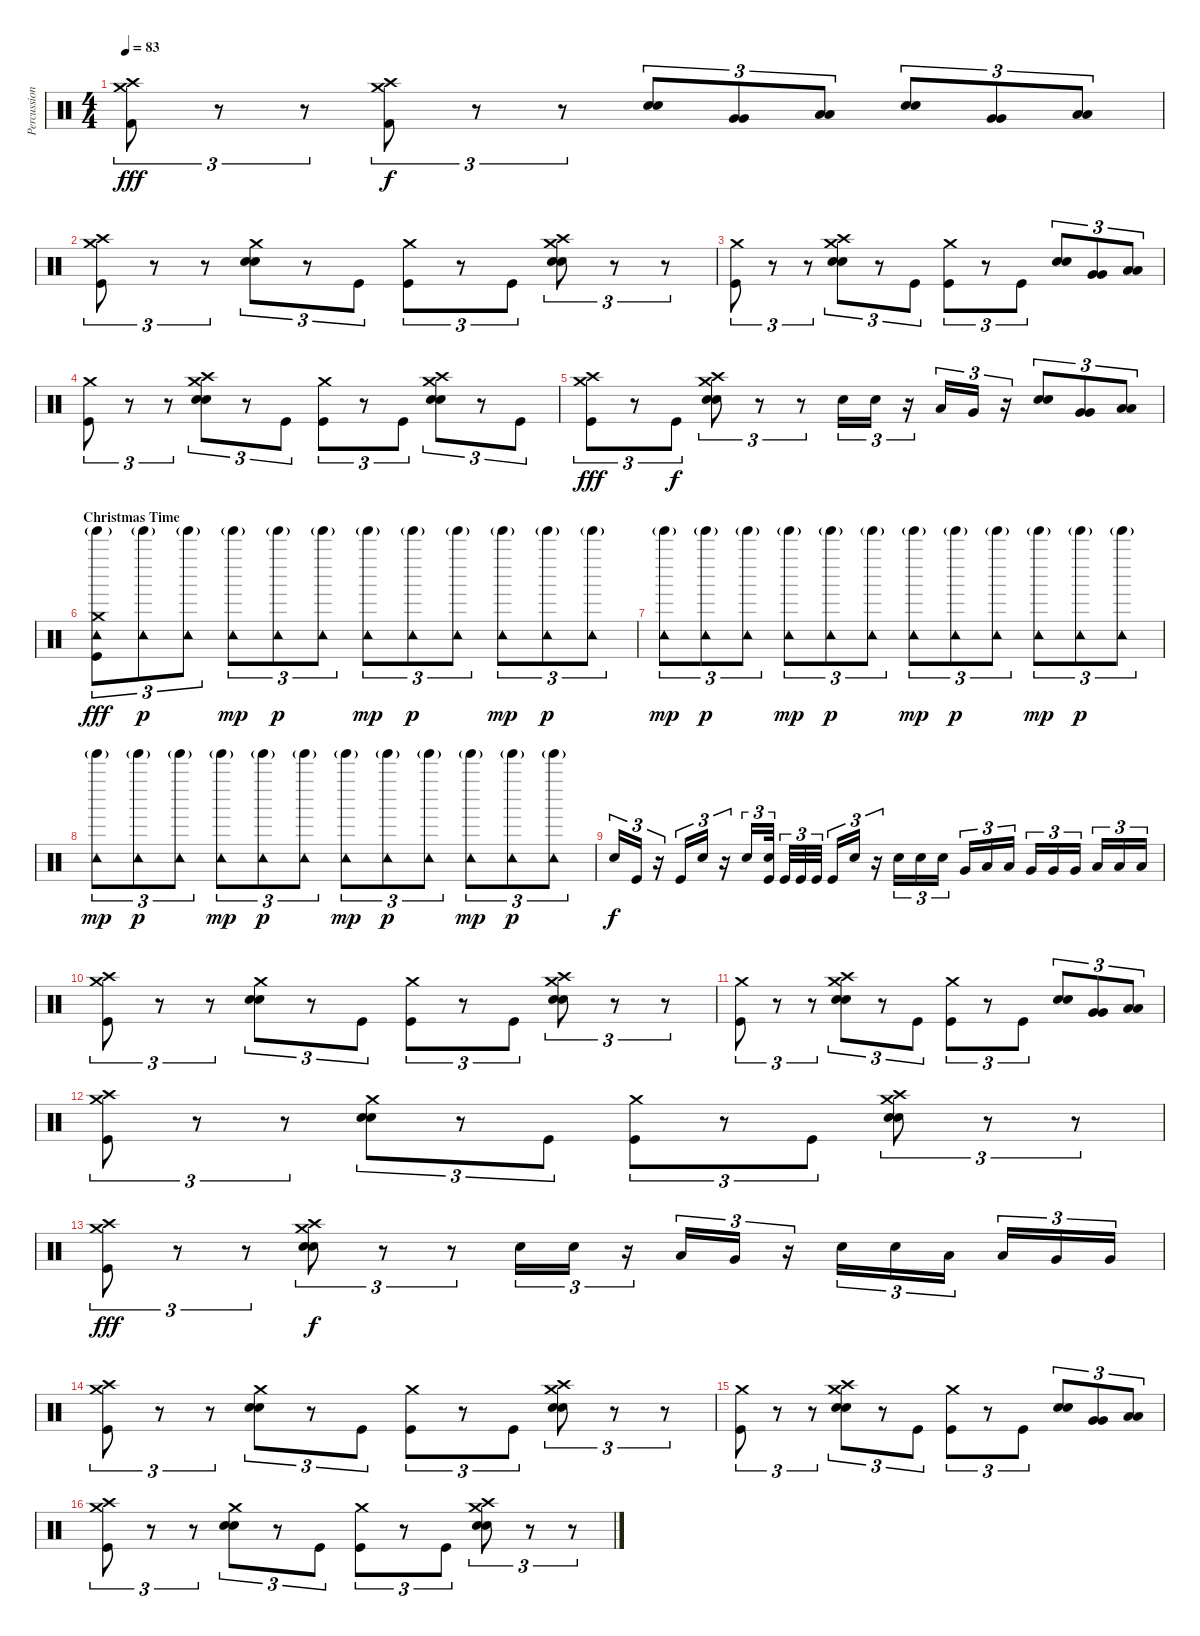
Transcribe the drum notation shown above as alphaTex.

\track ("Percussion" "Percussion") {instrument percussion}
\staff {score}
\articulation defaults
\ts (4 4)
\tempo 83
\clef neutral
\ks c
("Crash high (hit)" "Crash medium (hit)" "Kick (hit) 2").8{tu (3 2) dy fff} r.8{tu (3 2)} r.8{tu (3 2)} ("Crash high (hit)" "Crash medium (hit)" "Kick (hit) 2").8{tu (3 2) dy f} r.8{tu (3 2)} r.8{tu (3 2)} ("Snare (hit) 2" "Snare (hit) 2").8{tu (3 2)} ("Very Low Tom (hit)" "Very Low Tom (hit)").8{tu (3 2)} ("Low Floor Tom (hit)" "Low Floor Tom (hit)").8{tu (3 2)} ("Snare (hit) 2" "Snare (hit) 2").8{tu (3 2)} ("Very Low Tom (hit)" "Very Low Tom (hit)").8{tu (3 2)} ("Low Floor Tom (hit)" "Low Floor Tom (hit)").8{tu (3 2)} |
("Crash high (hit)" "Crash medium (hit)" "Kick (hit)").8{tu (3 2)} r.8{tu (3 2)} r.8{tu (3 2)} ("Crash medium (hit)" "Snare (hit) 2" "Snare (hit) 2").8{tu (3 2)} r.8{tu (3 2)} "Kick (hit)".8{tu (3 2)} ("Crash medium (hit)" "Kick (hit)").8{tu (3 2)} r.8{tu (3 2)} "Kick (hit)".8{tu (3 2)} ("Crash high (hit)" "Crash medium (hit)" "Snare (hit) 2" "Snare (hit) 2").8{tu (3 2)} r.8{tu (3 2)} r.8{tu (3 2)} |
("Crash medium (hit)" "Kick (hit)").8{tu (3 2)} r.8{tu (3 2)} r.8{tu (3 2)} ("Crash high (hit)" "Crash medium (hit)" "Snare (hit) 2" "Snare (hit) 2").8{tu (3 2)} r.8{tu (3 2)} "Kick (hit)".8{tu (3 2)} ("Crash medium (hit)" "Kick (hit)").8{tu (3 2)} r.8{tu (3 2)} "Kick (hit)".8{tu (3 2)} ("Snare (hit) 2" "Snare (hit) 2").8{tu (3 2)} ("Very Low Tom (hit)" "Very Low Tom (hit)").8{tu (3 2)} ("Low Floor Tom (hit)" "Low Floor Tom (hit)").8{tu (3 2)} |
("Crash medium (hit)" "Kick (hit)").8{tu (3 2)} r.8{tu (3 2)} r.8{tu (3 2)} ("Crash high (hit)" "Crash medium (hit)" "Snare (hit) 2" "Snare (hit) 2").8{tu (3 2)} r.8{tu (3 2)} "Kick (hit)".8{tu (3 2)} ("Crash medium (hit)" "Kick (hit)").8{tu (3 2)} r.8{tu (3 2)} "Kick (hit)".8{tu (3 2)} ("Crash high (hit)" "Crash medium (hit)" "Snare (hit) 2" "Snare (hit) 2").8{tu (3 2)} r.8{tu (3 2)} "Kick (hit)".8{tu (3 2)} |
("Crash high (hit)" "Crash medium (hit)" "Kick (hit)").8{tu (3 2) dy fff} r.8{tu (3 2)} "Kick (hit)".8{tu (3 2) dy f} ("Crash high (hit)" "Crash medium (hit)" "Snare (hit) 2" "Snare (hit) 2").8{tu (3 2)} r.8{tu (3 2)} r.8{tu (3 2)} "Snare (hit) 2".16{tu (3 2)} "Snare (hit) 2".16{tu (3 2)} r.16{tu (3 2)} "Low Tom (hit)".16{tu (3 2)} "Very Low Tom (hit)".16{tu (3 2)} r.16{tu (3 2)} ("Snare (hit) 2" "Snare (hit) 2").8{tu (3 2)} ("Very Low Tom (hit)" "Very Low Tom (hit)").8{tu (3 2)} ("Low Floor Tom (hit)" "Low Floor Tom (hit)").8{tu (3 2)} |
\section ("" "Christmas Time")
("Tinkle Bell (hit)"{g} "Tambourine (hit)" "Crash medium (hit)" "Kick (hit)").8{tu (3 2) dy fff} ("Tinkle Bell (hit)"{g} "Tambourine (hit)").8{tu (3 2) dy p} ("Tinkle Bell (hit)"{g} "Tambourine (hit)").8{tu (3 2)} ("Tinkle Bell (hit)"{g} "Tambourine (hit)").8{tu (3 2) dy mp} ("Tinkle Bell (hit)"{g} "Tambourine (hit)").8{tu (3 2) dy p} ("Tinkle Bell (hit)"{g} "Tambourine (hit)").8{tu (3 2)} ("Tinkle Bell (hit)"{g} "Tambourine (hit)").8{tu (3 2) dy mp} ("Tinkle Bell (hit)"{g} "Tambourine (hit)").8{tu (3 2) dy p} ("Tinkle Bell (hit)"{g} "Tambourine (hit)").8{tu (3 2)} ("Tinkle Bell (hit)"{g} "Tambourine (hit)").8{tu (3 2) dy mp} ("Tinkle Bell (hit)"{g} "Tambourine (hit)").8{tu (3 2) dy p} ("Tinkle Bell (hit)"{g} "Tambourine (hit)").8{tu (3 2)} |
("Tinkle Bell (hit)"{g} "Tambourine (hit)").8{tu (3 2) dy mp} ("Tinkle Bell (hit)"{g} "Tambourine (hit)").8{tu (3 2) dy p} ("Tinkle Bell (hit)"{g} "Tambourine (hit)").8{tu (3 2)} ("Tinkle Bell (hit)"{g} "Tambourine (hit)").8{tu (3 2) dy mp} ("Tinkle Bell (hit)"{g} "Tambourine (hit)").8{tu (3 2) dy p} ("Tinkle Bell (hit)"{g} "Tambourine (hit)").8{tu (3 2)} ("Tinkle Bell (hit)"{g} "Tambourine (hit)").8{tu (3 2) dy mp} ("Tinkle Bell (hit)"{g} "Tambourine (hit)").8{tu (3 2) dy p} ("Tinkle Bell (hit)"{g} "Tambourine (hit)").8{tu (3 2)} ("Tinkle Bell (hit)"{g} "Tambourine (hit)").8{tu (3 2) dy mp} ("Tinkle Bell (hit)"{g} "Tambourine (hit)").8{tu (3 2) dy p} ("Tinkle Bell (hit)"{g} "Tambourine (hit)").8{tu (3 2)} |
("Tinkle Bell (hit)"{g} "Tambourine (hit)").8{tu (3 2) dy mp} ("Tinkle Bell (hit)"{g} "Tambourine (hit)").8{tu (3 2) dy p} ("Tinkle Bell (hit)"{g} "Tambourine (hit)").8{tu (3 2)} ("Tinkle Bell (hit)"{g} "Tambourine (hit)").8{tu (3 2) dy mp} ("Tinkle Bell (hit)"{g} "Tambourine (hit)").8{tu (3 2) dy p} ("Tinkle Bell (hit)"{g} "Tambourine (hit)").8{tu (3 2)} ("Tinkle Bell (hit)"{g} "Tambourine (hit)").8{tu (3 2) dy mp} ("Tinkle Bell (hit)"{g} "Tambourine (hit)").8{tu (3 2) dy p} ("Tinkle Bell (hit)"{g} "Tambourine (hit)").8{tu (3 2)} ("Tinkle Bell (hit)"{g} "Tambourine (hit)").8{tu (3 2) dy mp} ("Tinkle Bell (hit)"{g} "Tambourine (hit)").8{tu (3 2) dy p} ("Tinkle Bell (hit)"{g} "Tambourine (hit)").8{tu (3 2)} |
"Snare (hit) 2".16{tu (3 2) dy f} "Kick (hit)".16{tu (3 2)} r.16{tu (3 2)} "Kick (hit)".16{tu (3 2)} "Snare (hit) 2".16{tu (3 2)} r.16{tu (3 2)} "Snare (hit) 2".16{tu (3 2)} ("Snare (hit) 2" "Kick (hit)").32{tu (3 2)} "Kick (hit)".32{tu (3 2)} "Kick (hit)".32{tu (3 2)} "Kick (hit)".32{tu (3 2)} "Kick (hit)".16{tu (3 2)} "Snare (hit) 2".16{tu (3 2)} r.16{tu (3 2)} "Snare (hit) 2".16{tu (3 2)} "Snare (hit) 2".16{tu (3 2)} "Snare (hit) 2".16{tu (3 2)} "Very Low Tom (hit)".16{tu (3 2)} "Low Floor Tom (hit)".16{tu (3 2)} "Low Floor Tom (hit)".16{tu (3 2)} "Very Low Tom (hit)".16{tu (3 2)} "Very Low Tom (hit)".16{tu (3 2)} "Very Low Tom (hit)".16{tu (3 2)} "Low Floor Tom (hit)".16{tu (3 2)} "Low Floor Tom (hit)".16{tu (3 2)} "Low Floor Tom (hit)".16{tu (3 2)} |
("Crash high (hit)" "Crash medium (hit)" "Kick (hit)").8{tu (3 2)} r.8{tu (3 2)} r.8{tu (3 2)} ("Crash medium (hit)" "Snare (hit) 2" "Snare (hit) 2").8{tu (3 2)} r.8{tu (3 2)} "Kick (hit)".8{tu (3 2)} ("Crash medium (hit)" "Kick (hit)").8{tu (3 2)} r.8{tu (3 2)} "Kick (hit)".8{tu (3 2)} ("Crash high (hit)" "Crash medium (hit)" "Snare (hit) 2" "Snare (hit) 2").8{tu (3 2)} r.8{tu (3 2)} r.8{tu (3 2)} |
("Crash medium (hit)" "Kick (hit)").8{tu (3 2)} r.8{tu (3 2)} r.8{tu (3 2)} ("Crash high (hit)" "Crash medium (hit)" "Snare (hit) 2" "Snare (hit) 2").8{tu (3 2)} r.8{tu (3 2)} "Kick (hit)".8{tu (3 2)} ("Crash medium (hit)" "Kick (hit)").8{tu (3 2)} r.8{tu (3 2)} "Kick (hit)".8{tu (3 2)} ("Snare (hit) 2" "Snare (hit) 2").8{tu (3 2)} ("Very Low Tom (hit)" "Very Low Tom (hit)").8{tu (3 2)} ("Low Floor Tom (hit)" "Low Floor Tom (hit)").8{tu (3 2)} |
("Crash high (hit)" "Crash medium (hit)" "Kick (hit)").8{tu (3 2)} r.8{tu (3 2)} r.8{tu (3 2)} ("Crash medium (hit)" "Snare (hit) 2" "Snare (hit) 2").8{tu (3 2)} r.8{tu (3 2)} "Kick (hit)".8{tu (3 2)} ("Crash medium (hit)" "Kick (hit)").8{tu (3 2)} r.8{tu (3 2)} "Kick (hit)".8{tu (3 2)} ("Crash high (hit)" "Crash medium (hit)" "Snare (hit) 2" "Snare (hit) 2").8{tu (3 2)} r.8{tu (3 2)} r.8{tu (3 2)} |
("Crash high (hit)" "Crash medium (hit)" "Kick (hit)").8{tu (3 2) dy fff} r.8{tu (3 2)} r.8{tu (3 2)} ("Crash high (hit)" "Crash medium (hit)" "Snare (hit) 2" "Snare (hit) 2").8{tu (3 2) dy f} r.8{tu (3 2)} r.8{tu (3 2)} "Snare (hit) 2".16{tu (3 2)} "Snare (hit) 2".16{tu (3 2)} r.16{tu (3 2)} "Low Tom (hit)".16{tu (3 2)} "Very Low Tom (hit)".16{tu (3 2)} r.16{tu (3 2)} "Snare (hit) 2".16{tu (3 2)} "Snare (hit) 2".16{tu (3 2)} "Low Tom (hit)".16{tu (3 2)} "Low Tom (hit)".16{tu (3 2)} "Very Low Tom (hit)".16{tu (3 2)} "Very Low Tom (hit)".16{tu (3 2)} |
("Crash high (hit)" "Crash medium (hit)" "Kick (hit)").8{tu (3 2)} r.8{tu (3 2)} r.8{tu (3 2)} ("Crash medium (hit)" "Snare (hit) 2" "Snare (hit) 2").8{tu (3 2)} r.8{tu (3 2)} "Kick (hit)".8{tu (3 2)} ("Crash medium (hit)" "Kick (hit)").8{tu (3 2)} r.8{tu (3 2)} "Kick (hit)".8{tu (3 2)} ("Crash high (hit)" "Crash medium (hit)" "Snare (hit) 2" "Snare (hit) 2").8{tu (3 2)} r.8{tu (3 2)} r.8{tu (3 2)} |
("Crash medium (hit)" "Kick (hit)").8{tu (3 2)} r.8{tu (3 2)} r.8{tu (3 2)} ("Crash high (hit)" "Crash medium (hit)" "Snare (hit) 2" "Snare (hit) 2").8{tu (3 2)} r.8{tu (3 2)} "Kick (hit)".8{tu (3 2)} ("Crash medium (hit)" "Kick (hit)").8{tu (3 2)} r.8{tu (3 2)} "Kick (hit)".8{tu (3 2)} ("Snare (hit) 2" "Snare (hit) 2").8{tu (3 2)} ("Very Low Tom (hit)" "Very Low Tom (hit)").8{tu (3 2)} ("Low Floor Tom (hit)" "Low Floor Tom (hit)").8{tu (3 2)} |
("Crash high (hit)" "Crash medium (hit)" "Kick (hit)").8{tu (3 2)} r.8{tu (3 2)} r.8{tu (3 2)} ("Crash medium (hit)" "Snare (hit) 2" "Snare (hit) 2").8{tu (3 2)} r.8{tu (3 2)} "Kick (hit)".8{tu (3 2)} ("Crash medium (hit)" "Kick (hit)").8{tu (3 2)} r.8{tu (3 2)} "Kick (hit)".8{tu (3 2)} ("Crash high (hit)" "Crash medium (hit)" "Snare (hit) 2" "Snare (hit) 2").8{tu (3 2)} r.8{tu (3 2)} r.8{tu (3 2)}
